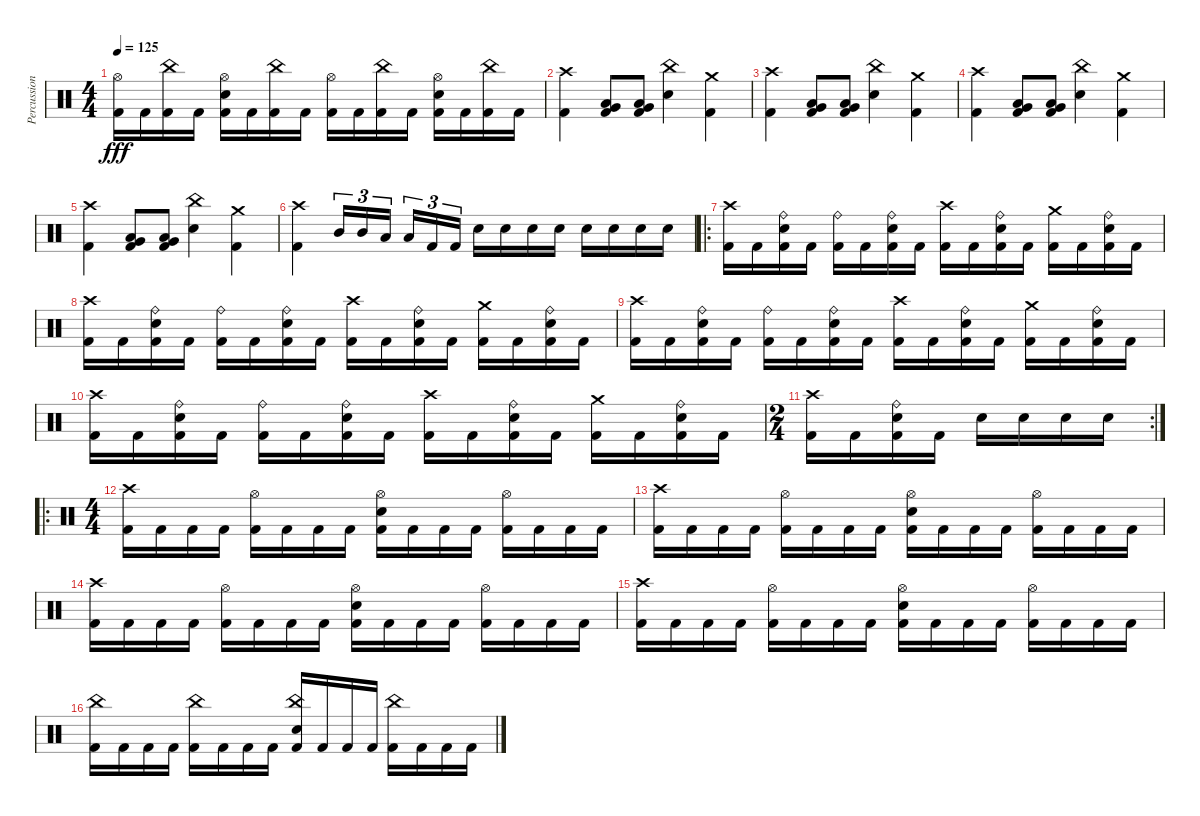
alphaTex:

\track ("Percussions" "Percussion") {instrument percussion}
\staff {score}
\articulation defaults
\ts (4 4)
\tempo 125
\clef neutral
\ks c
("Hi-Hat (open)" "Kick (hit) 2").16{dy fff} "Kick (hit) 2".16 ("China (hit)" "Kick (hit) 2").16 "Kick (hit) 2".16 ("Hi-Hat (open)" "Electric Snare (hit)" "Kick (hit) 2").16 "Kick (hit) 2".16 ("China (hit)" "Kick (hit) 2").16 "Kick (hit) 2".16 ("Hi-Hat (open)" "Kick (hit) 2").16 "Kick (hit) 2".16 ("China (hit)" "Kick (hit) 2").16 "Kick (hit) 2".16 ("Hi-Hat (open)" "Electric Snare (hit)" "Kick (hit) 2").16 "Kick (hit) 2".16 ("China (hit)" "Kick (hit) 2").16 "Kick (hit) 2".16 |
("Crash high (hit)" "Kick (hit) 2").4 ("Very Low Tom (hit)" "Low Floor Tom (hit)" "Kick (hit) 2").8 ("Very Low Tom (hit)" "Low Floor Tom (hit)" "Kick (hit) 2").8 ("China (hit)" "Electric Snare (hit)").4 ("Crash medium (hit)" "Kick (hit) 2").4 |
("Crash high (hit)" "Kick (hit) 2").4 ("Very Low Tom (hit)" "Low Floor Tom (hit)" "Kick (hit) 2").8 ("Very Low Tom (hit)" "Low Floor Tom (hit)" "Kick (hit) 2").8 ("China (hit)" "Electric Snare (hit)").4 ("Crash medium (hit)" "Kick (hit) 2").4 |
("Crash high (hit)" "Kick (hit) 2").4 ("Very Low Tom (hit)" "Low Floor Tom (hit)" "Kick (hit) 2").8 ("Very Low Tom (hit)" "Low Floor Tom (hit)" "Kick (hit) 2").8 ("China (hit)" "Electric Snare (hit)").4 ("Crash medium (hit)" "Kick (hit) 2").4 |
("Crash high (hit)" "Kick (hit) 2").4 ("Very Low Tom (hit)" "Low Floor Tom (hit)" "Kick (hit) 2").8 ("Very Low Tom (hit)" "Low Floor Tom (hit)" "Kick (hit) 2").8 ("China (hit)" "Electric Snare (hit)").4 ("Crash medium (hit)" "Kick (hit) 2").4 |
("Crash high (hit)" "Kick (hit) 2").4 "Mid Tom (hit)".16{tu (3 2)} "Mid Tom (hit)".16{tu (3 2)} "Low Tom (hit)".16{tu (3 2) beam splitsecondary} "Low Tom (hit)".16{tu (3 2)} "Kick (hit) 2".16{tu (3 2)} "Kick (hit) 2".16{tu (3 2)} "Electric Snare (hit)".16 "Electric Snare (hit)".16 "Electric Snare (hit)".16 "Electric Snare (hit)".16 "Electric Snare (hit)".16 "Electric Snare (hit)".16 "Electric Snare (hit)".16 "Electric Snare (hit)".16 |
\ro
("Crash high (hit)" "Kick (hit) 2").16 "Kick (hit) 2".16 ("Ride (bell)" "Electric Snare (hit)" "Kick (hit) 2").16 "Kick (hit) 2".16 ("Ride (bell)" "Kick (hit) 2").16 "Kick (hit) 2".16 ("Ride (bell)" "Electric Snare (hit)" "Kick (hit) 2").16 "Kick (hit) 2".16 ("Crash high (hit)" "Kick (hit) 2").16 "Kick (hit) 2".16 ("Ride (bell)" "Electric Snare (hit)" "Kick (hit) 2").16 "Kick (hit) 2".16 ("Crash medium (hit)" "Kick (hit) 2").16 "Kick (hit) 2".16 ("Ride (bell)" "Electric Snare (hit)" "Kick (hit) 2").16 "Kick (hit) 2".16 |
("Crash high (hit)" "Kick (hit) 2").16 "Kick (hit) 2".16 ("Ride (bell)" "Electric Snare (hit)" "Kick (hit) 2").16 "Kick (hit) 2".16 ("Ride (bell)" "Kick (hit) 2").16 "Kick (hit) 2".16 ("Ride (bell)" "Electric Snare (hit)" "Kick (hit) 2").16 "Kick (hit) 2".16 ("Crash high (hit)" "Kick (hit) 2").16 "Kick (hit) 2".16 ("Ride (bell)" "Electric Snare (hit)" "Kick (hit) 2").16 "Kick (hit) 2".16 ("Crash medium (hit)" "Kick (hit) 2").16 "Kick (hit) 2".16 ("Ride (bell)" "Electric Snare (hit)" "Kick (hit) 2").16 "Kick (hit) 2".16 |
("Crash high (hit)" "Kick (hit) 2").16 "Kick (hit) 2".16 ("Ride (bell)" "Electric Snare (hit)" "Kick (hit) 2").16 "Kick (hit) 2".16 ("Ride (bell)" "Kick (hit) 2").16 "Kick (hit) 2".16 ("Ride (bell)" "Electric Snare (hit)" "Kick (hit) 2").16 "Kick (hit) 2".16 ("Crash high (hit)" "Kick (hit) 2").16 "Kick (hit) 2".16 ("Ride (bell)" "Electric Snare (hit)" "Kick (hit) 2").16 "Kick (hit) 2".16 ("Crash medium (hit)" "Kick (hit) 2").16 "Kick (hit) 2".16 ("Ride (bell)" "Electric Snare (hit)" "Kick (hit) 2").16 "Kick (hit) 2".16 |
("Crash high (hit)" "Kick (hit) 2").16 "Kick (hit) 2".16 ("Ride (bell)" "Electric Snare (hit)" "Kick (hit) 2").16 "Kick (hit) 2".16 ("Ride (bell)" "Kick (hit) 2").16 "Kick (hit) 2".16 ("Ride (bell)" "Electric Snare (hit)" "Kick (hit) 2").16 "Kick (hit) 2".16 ("Crash high (hit)" "Kick (hit) 2").16 "Kick (hit) 2".16 ("Ride (bell)" "Electric Snare (hit)" "Kick (hit) 2").16 "Kick (hit) 2".16 ("Crash medium (hit)" "Kick (hit) 2").16 "Kick (hit) 2".16 ("Ride (bell)" "Electric Snare (hit)" "Kick (hit) 2").16 "Kick (hit) 2".16 |
\rc 2
\ts (2 4)
("Crash high (hit)" "Kick (hit) 2").16 "Kick (hit) 2".16 ("Ride (bell)" "Electric Snare (hit)" "Kick (hit) 2").16 "Kick (hit) 2".16 "Electric Snare (hit)".16 "Electric Snare (hit)".16 "Electric Snare (hit)".16 "Electric Snare (hit)".16 |
\ro
\ts (4 4)
("Crash high (hit)" "Kick (hit) 2").16 "Kick (hit) 2".16 "Kick (hit) 2".16 "Kick (hit) 2".16 ("Hi-Hat (open)" "Kick (hit) 2").16 "Kick (hit) 2".16 "Kick (hit) 2".16 "Kick (hit) 2".16 ("Hi-Hat (open)" "Electric Snare (hit)" "Kick (hit) 2").16 "Kick (hit) 2".16 "Kick (hit) 2".16 "Kick (hit) 2".16 ("Hi-Hat (open)" "Kick (hit) 2").16 "Kick (hit) 2".16 "Kick (hit) 2".16 "Kick (hit) 2".16 |
("Crash high (hit)" "Kick (hit) 2").16 "Kick (hit) 2".16 "Kick (hit) 2".16 "Kick (hit) 2".16 ("Hi-Hat (open)" "Kick (hit) 2").16 "Kick (hit) 2".16 "Kick (hit) 2".16 "Kick (hit) 2".16 ("Hi-Hat (open)" "Electric Snare (hit)" "Kick (hit) 2").16 "Kick (hit) 2".16 "Kick (hit) 2".16 "Kick (hit) 2".16 ("Hi-Hat (open)" "Kick (hit) 2").16 "Kick (hit) 2".16 "Kick (hit) 2".16 "Kick (hit) 2".16 |
("Crash high (hit)" "Kick (hit) 2").16 "Kick (hit) 2".16 "Kick (hit) 2".16 "Kick (hit) 2".16 ("Hi-Hat (open)" "Kick (hit) 2").16 "Kick (hit) 2".16 "Kick (hit) 2".16 "Kick (hit) 2".16 ("Hi-Hat (open)" "Electric Snare (hit)" "Kick (hit) 2").16 "Kick (hit) 2".16 "Kick (hit) 2".16 "Kick (hit) 2".16 ("Hi-Hat (open)" "Kick (hit) 2").16 "Kick (hit) 2".16 "Kick (hit) 2".16 "Kick (hit) 2".16 |
("Crash high (hit)" "Kick (hit) 2").16 "Kick (hit) 2".16 "Kick (hit) 2".16 "Kick (hit) 2".16 ("Hi-Hat (open)" "Kick (hit) 2").16 "Kick (hit) 2".16 "Kick (hit) 2".16 "Kick (hit) 2".16 ("Hi-Hat (open)" "Electric Snare (hit)" "Kick (hit) 2").16 "Kick (hit) 2".16 "Kick (hit) 2".16 "Kick (hit) 2".16 ("Hi-Hat (open)" "Kick (hit) 2").16 "Kick (hit) 2".16 "Kick (hit) 2".16 "Kick (hit) 2".16 |
("China (hit)" "Kick (hit) 2").16 "Kick (hit) 2".16 "Kick (hit) 2".16 "Kick (hit) 2".16 ("China (hit)" "Kick (hit) 2").16 "Kick (hit) 2".16 "Kick (hit) 2".16 "Kick (hit) 2".16 ("China (hit)" "Electric Snare (hit)" "Kick (hit) 2").16 "Kick (hit) 2".16 "Kick (hit) 2".16 "Kick (hit) 2".16 ("China (hit)" "Kick (hit) 2").16 "Kick (hit) 2".16 "Kick (hit) 2".16 "Kick (hit) 2".16
